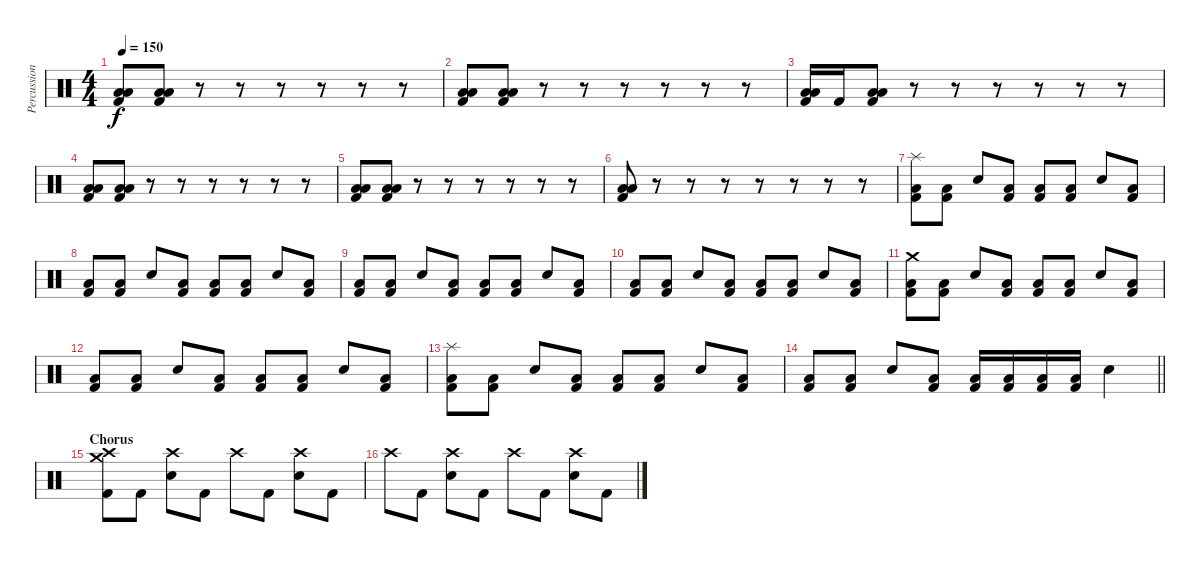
\track ("Percussion" "Percussion") {instrument percussion}
\staff {score}
\articulation defaults
\ts (4 4)
\tempo 150
\clef neutral
\ks c
("Low Tom (hit)" "Low Floor Tom (hit)" "Kick (hit) 2").8{dy f} ("Low Tom (hit)" "Low Floor Tom (hit)" "Kick (hit) 2").8 r.8 r.8 r.8 r.8 r.8 r.8 |
("Low Tom (hit)" "Low Floor Tom (hit)" "Kick (hit) 2").8 ("Low Tom (hit)" "Low Floor Tom (hit)" "Kick (hit) 2").8 r.8 r.8 r.8 r.8 r.8 r.8 |
("Low Tom (hit)" "Low Floor Tom (hit)" "Kick (hit) 2").16 "Kick (hit) 2".16 ("Low Tom (hit)" "Low Floor Tom (hit)" "Kick (hit) 2").8 r.8 r.8 r.8 r.8 r.8 r.8 |
("Low Tom (hit)" "Low Floor Tom (hit)" "Kick (hit) 2").8 ("Low Tom (hit)" "Low Floor Tom (hit)" "Kick (hit) 2").8 r.8 r.8 r.8 r.8 r.8 r.8 |
("Low Tom (hit)" "Low Floor Tom (hit)" "Kick (hit) 2").8 ("Low Tom (hit)" "Low Floor Tom (hit)" "Kick (hit) 2").8 r.8 r.8 r.8 r.8 r.8 r.8 |
("Low Tom (hit)" "Low Floor Tom (hit)" "Kick (hit) 2").8 r.8 r.8 r.8 r.8 r.8 r.8 r.8 |
("Splash (hit)" "Low Floor Tom (hit)" "Kick (hit) 2").8 ("Low Floor Tom (hit)" "Kick (hit) 2").8 "Snare (hit) 2".8 ("Low Floor Tom (hit)" "Kick (hit) 2").8 ("Low Floor Tom (hit)" "Kick (hit) 2").8 ("Low Floor Tom (hit)" "Kick (hit) 2").8 "Snare (hit) 2".8 ("Low Floor Tom (hit)" "Kick (hit) 2").8 |
("Low Floor Tom (hit)" "Kick (hit) 2").8 ("Low Floor Tom (hit)" "Kick (hit) 2").8 "Snare (hit) 2".8 ("Low Floor Tom (hit)" "Kick (hit) 2").8 ("Low Floor Tom (hit)" "Kick (hit) 2").8 ("Low Floor Tom (hit)" "Kick (hit) 2").8 "Snare (hit) 2".8 ("Low Floor Tom (hit)" "Kick (hit) 2").8 |
("Low Floor Tom (hit)" "Kick (hit) 2").8 ("Low Floor Tom (hit)" "Kick (hit) 2").8 "Snare (hit) 2".8 ("Low Floor Tom (hit)" "Kick (hit) 2").8 ("Low Floor Tom (hit)" "Kick (hit) 2").8 ("Low Floor Tom (hit)" "Kick (hit) 2").8 "Snare (hit) 2".8 ("Low Floor Tom (hit)" "Kick (hit) 2").8 |
("Low Floor Tom (hit)" "Kick (hit) 2").8 ("Low Floor Tom (hit)" "Kick (hit) 2").8 "Snare (hit) 2".8 ("Low Floor Tom (hit)" "Kick (hit) 2").8 ("Low Floor Tom (hit)" "Kick (hit) 2").8 ("Low Floor Tom (hit)" "Kick (hit) 2").8 "Snare (hit) 2".8 ("Low Floor Tom (hit)" "Kick (hit) 2").8 |
("Crash medium (hit)" "Low Floor Tom (hit)" "Kick (hit) 2").8 ("Low Floor Tom (hit)" "Kick (hit) 2").8 "Snare (hit) 2".8 ("Low Floor Tom (hit)" "Kick (hit) 2").8 ("Low Floor Tom (hit)" "Kick (hit) 2").8 ("Low Floor Tom (hit)" "Kick (hit) 2").8 "Snare (hit) 2".8 ("Low Floor Tom (hit)" "Kick (hit) 2").8 |
("Low Floor Tom (hit)" "Kick (hit) 2").8 ("Low Floor Tom (hit)" "Kick (hit) 2").8 "Snare (hit) 2".8 ("Low Floor Tom (hit)" "Kick (hit) 2").8 ("Low Floor Tom (hit)" "Kick (hit) 2").8 ("Low Floor Tom (hit)" "Kick (hit) 2").8 "Snare (hit) 2".8 ("Low Floor Tom (hit)" "Kick (hit) 2").8 |
("Splash (hit)" "Low Floor Tom (hit)" "Kick (hit) 2").8 ("Low Floor Tom (hit)" "Kick (hit) 2").8 "Snare (hit) 2".8 ("Low Floor Tom (hit)" "Kick (hit) 2").8 ("Low Floor Tom (hit)" "Kick (hit) 2").8 ("Low Floor Tom (hit)" "Kick (hit) 2").8 "Snare (hit) 2".8 ("Low Floor Tom (hit)" "Kick (hit) 2").8 |
\barLineRight lightlight
("Low Floor Tom (hit)" "Kick (hit) 2").8 ("Low Floor Tom (hit)" "Kick (hit) 2").8 "Snare (hit) 2".8 ("Low Floor Tom (hit)" "Kick (hit) 2").8 ("Low Floor Tom (hit)" "Kick (hit) 2").16 ("Low Floor Tom (hit)" "Kick (hit) 2").16 ("Low Floor Tom (hit)" "Kick (hit) 2").16 ("Low Floor Tom (hit)" "Kick (hit) 2").16 "Snare (hit) 2".4 |
\section ("" "Chorus")
("Crash high (hit)" "Crash medium (hit)" "Kick (hit) 2").8 "Kick (hit) 2".8 ("Crash high (hit)" "Snare (hit) 2").8 "Kick (hit) 2".8 "Crash high (hit)".8 "Kick (hit) 2".8 ("Crash high (hit)" "Snare (hit) 2").8 "Kick (hit) 2".8 |
"Crash high (hit)".8 "Kick (hit) 2".8 ("Crash high (hit)" "Snare (hit) 2").8 "Kick (hit) 2".8 "Crash high (hit)".8 "Kick (hit) 2".8 ("Crash high (hit)" "Snare (hit) 2").8 "Kick (hit) 2".8
